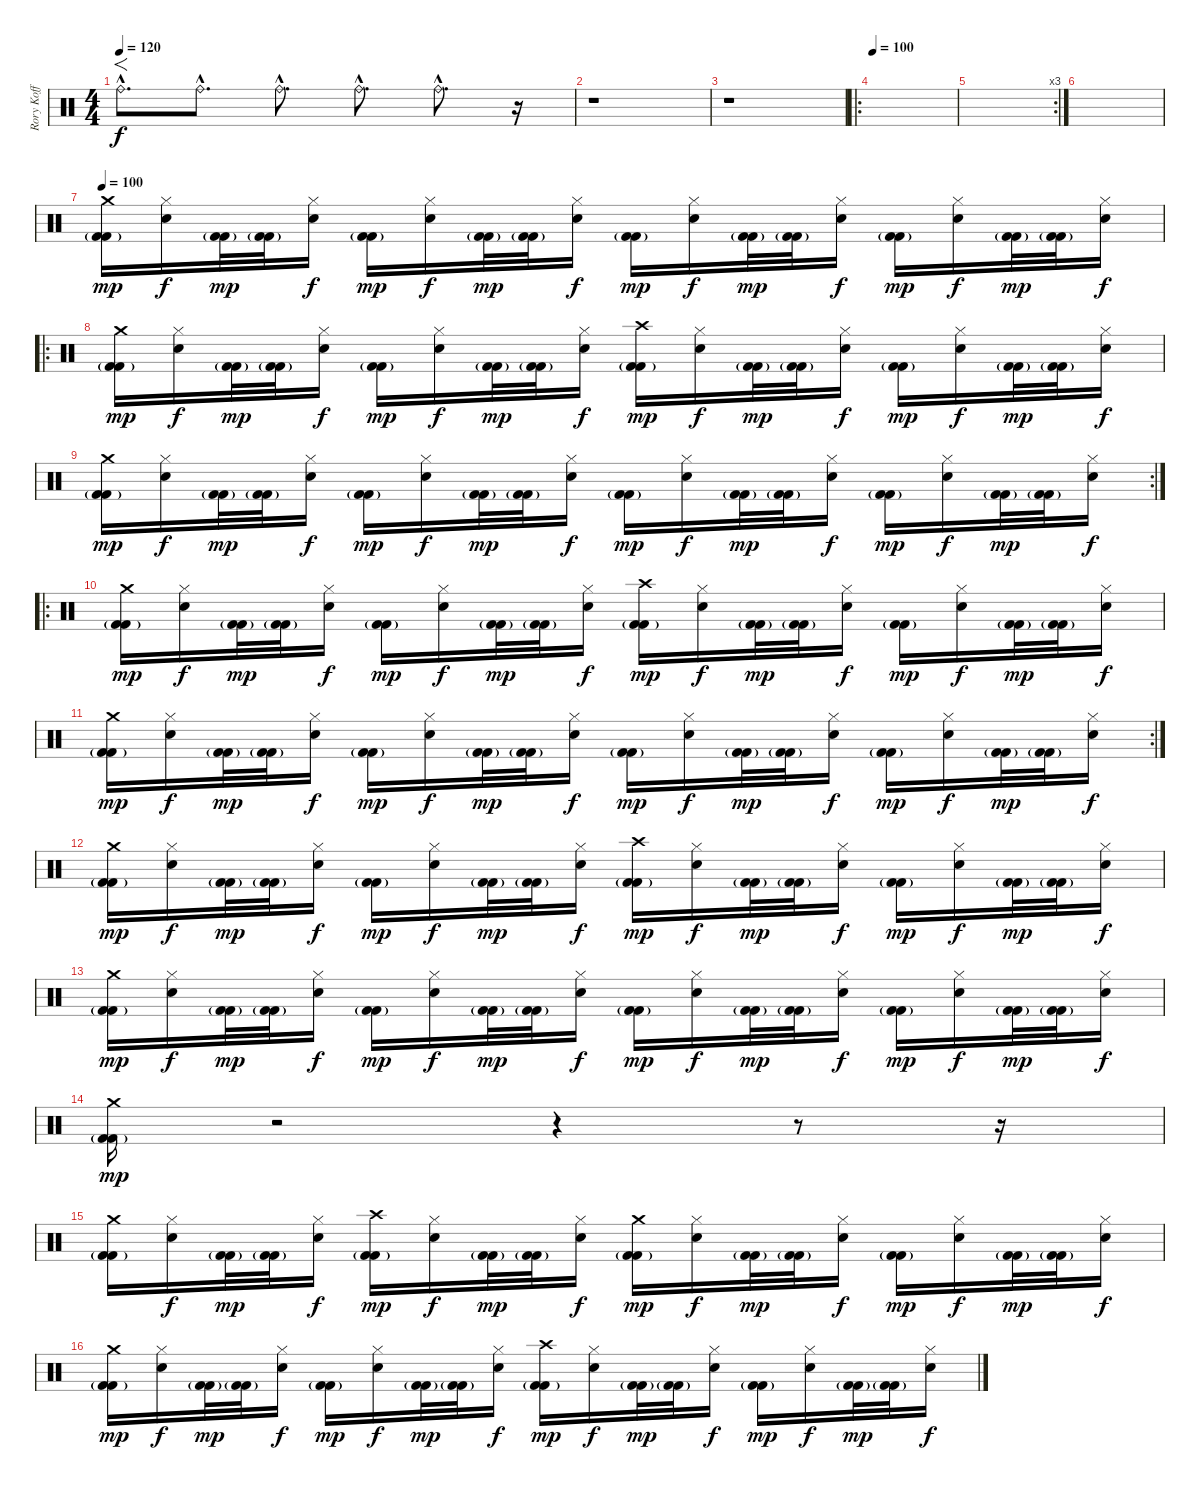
\track ("Rory Koff" "Rory Koff") {instrument percussion}
\staff {score}
\articulation defaults
\ts (4 4)
\tempo 120
\clef neutral
\ks c "Ride (bell)"{hac}.8{f d dy f} "Ride (bell)"{hac}.8{d} "Ride (bell)"{hac}.8{d} "Ride (bell)"{hac}.8{d} "Ride (bell)"{hac}.8{d}
r.16 |
r.1 |
r.1 |
\ro
\tempo 100
|
\rc 3
|
|
\tempo 100
("Crash medium (hit)" "Kick (hit) 2"{g} "Kick (hit) 2").16{dy mp} ("Hi-Hat (closed)" "Snare (hit) 2").16{dy f} ("Kick (hit) 2"{g} "Kick (hit) 2").32{dy mp} ("Kick (hit) 2"{g} "Kick (hit) 2").32 ("Hi-Hat (closed)" "Snare (hit) 2").16{dy f} ("Kick (hit) 2"{g} "Kick (hit) 2").16{dy mp} ("Hi-Hat (closed)" "Snare (hit) 2").16{dy f} ("Kick (hit) 2"{g} "Kick (hit) 2").32{dy mp} ("Kick (hit) 2"{g} "Kick (hit) 2").32 ("Hi-Hat (closed)" "Snare (hit) 2").16{dy f} ("Kick (hit) 2"{g} "Kick (hit) 2").16{dy mp} ("Hi-Hat (closed)" "Snare (hit) 2").16{dy f} ("Kick (hit) 2"{g} "Kick (hit) 2").32{dy mp} ("Kick (hit) 2"{g} "Kick (hit) 2").32 ("Hi-Hat (closed)" "Snare (hit) 2").16{dy f} ("Kick (hit) 2"{g} "Kick (hit) 2").16{dy mp} ("Hi-Hat (closed)" "Snare (hit) 2").16{dy f} ("Kick (hit) 2"{g} "Kick (hit) 2").32{dy mp} ("Kick (hit) 2"{g} "Kick (hit) 2").32 ("Hi-Hat (closed)" "Snare (hit) 2").16{dy f} |
\ro
("Crash medium (hit)" "Kick (hit) 2"{g} "Kick (hit) 2").16{dy mp} ("Hi-Hat (closed)" "Snare (hit) 2").16{dy f} ("Kick (hit) 2"{g} "Kick (hit) 2").32{dy mp} ("Kick (hit) 2"{g} "Kick (hit) 2").32 ("Hi-Hat (closed)" "Snare (hit) 2").16{dy f} ("Kick (hit) 2"{g} "Kick (hit) 2").16{dy mp} ("Hi-Hat (closed)" "Snare (hit) 2").16{dy f} ("Kick (hit) 2"{g} "Kick (hit) 2").32{dy mp} ("Kick (hit) 2"{g} "Kick (hit) 2").32 ("Hi-Hat (closed)" "Snare (hit) 2").16{dy f} ("Crash high (hit)" "Kick (hit) 2"{g} "Kick (hit) 2").16{dy mp} ("Hi-Hat (closed)" "Snare (hit) 2").16{dy f} ("Kick (hit) 2"{g} "Kick (hit) 2").32{dy mp} ("Kick (hit) 2"{g} "Kick (hit) 2").32 ("Hi-Hat (closed)" "Snare (hit) 2").16{dy f} ("Kick (hit) 2"{g} "Kick (hit) 2").16{dy mp} ("Hi-Hat (closed)" "Snare (hit) 2").16{dy f} ("Kick (hit) 2"{g} "Kick (hit) 2").32{dy mp} ("Kick (hit) 2"{g} "Kick (hit) 2").32 ("Hi-Hat (closed)" "Snare (hit) 2").16{dy f} |
\rc 2
("Crash medium (hit)" "Kick (hit) 2"{g} "Kick (hit) 2").16{dy mp} ("Hi-Hat (closed)" "Snare (hit) 2").16{dy f} ("Kick (hit) 2"{g} "Kick (hit) 2").32{dy mp} ("Kick (hit) 2"{g} "Kick (hit) 2").32 ("Hi-Hat (closed)" "Snare (hit) 2").16{dy f} ("Kick (hit) 2"{g} "Kick (hit) 2").16{dy mp} ("Hi-Hat (closed)" "Snare (hit) 2").16{dy f} ("Kick (hit) 2"{g} "Kick (hit) 2").32{dy mp} ("Kick (hit) 2"{g} "Kick (hit) 2").32 ("Hi-Hat (closed)" "Snare (hit) 2").16{dy f} ("Kick (hit) 2"{g} "Kick (hit) 2").16{dy mp} ("Hi-Hat (closed)" "Snare (hit) 2").16{dy f} ("Kick (hit) 2"{g} "Kick (hit) 2").32{dy mp} ("Kick (hit) 2"{g} "Kick (hit) 2").32 ("Hi-Hat (closed)" "Snare (hit) 2").16{dy f} ("Kick (hit) 2"{g} "Kick (hit) 2").16{dy mp} ("Hi-Hat (closed)" "Snare (hit) 2").16{dy f} ("Kick (hit) 2"{g} "Kick (hit) 2").32{dy mp} ("Kick (hit) 2"{g} "Kick (hit) 2").32 ("Hi-Hat (closed)" "Snare (hit) 2").16{dy f} |
\ro
("Crash medium (hit)" "Kick (hit) 2"{g} "Kick (hit) 2").16{dy mp} ("Hi-Hat (closed)" "Snare (hit) 2").16{dy f} ("Kick (hit) 2"{g} "Kick (hit) 2").32{dy mp} ("Kick (hit) 2"{g} "Kick (hit) 2").32 ("Hi-Hat (closed)" "Snare (hit) 2").16{dy f} ("Kick (hit) 2"{g} "Kick (hit) 2").16{dy mp} ("Hi-Hat (closed)" "Snare (hit) 2").16{dy f} ("Kick (hit) 2"{g} "Kick (hit) 2").32{dy mp} ("Kick (hit) 2"{g} "Kick (hit) 2").32 ("Hi-Hat (closed)" "Snare (hit) 2").16{dy f} ("Crash high (hit)" "Kick (hit) 2"{g} "Kick (hit) 2").16{dy mp} ("Hi-Hat (closed)" "Snare (hit) 2").16{dy f} ("Kick (hit) 2"{g} "Kick (hit) 2").32{dy mp} ("Kick (hit) 2"{g} "Kick (hit) 2").32 ("Hi-Hat (closed)" "Snare (hit) 2").16{dy f} ("Kick (hit) 2"{g} "Kick (hit) 2").16{dy mp} ("Hi-Hat (closed)" "Snare (hit) 2").16{dy f} ("Kick (hit) 2"{g} "Kick (hit) 2").32{dy mp} ("Kick (hit) 2"{g} "Kick (hit) 2").32 ("Hi-Hat (closed)" "Snare (hit) 2").16{dy f} |
\rc 2
("Crash medium (hit)" "Kick (hit) 2"{g} "Kick (hit) 2").16{dy mp} ("Hi-Hat (closed)" "Snare (hit) 2").16{dy f} ("Kick (hit) 2"{g} "Kick (hit) 2").32{dy mp} ("Kick (hit) 2"{g} "Kick (hit) 2").32 ("Hi-Hat (closed)" "Snare (hit) 2").16{dy f} ("Kick (hit) 2"{g} "Kick (hit) 2").16{dy mp} ("Hi-Hat (closed)" "Snare (hit) 2").16{dy f} ("Kick (hit) 2"{g} "Kick (hit) 2").32{dy mp} ("Kick (hit) 2"{g} "Kick (hit) 2").32 ("Hi-Hat (closed)" "Snare (hit) 2").16{dy f} ("Kick (hit) 2"{g} "Kick (hit) 2").16{dy mp} ("Hi-Hat (closed)" "Snare (hit) 2").16{dy f} ("Kick (hit) 2"{g} "Kick (hit) 2").32{dy mp} ("Kick (hit) 2"{g} "Kick (hit) 2").32 ("Hi-Hat (closed)" "Snare (hit) 2").16{dy f} ("Kick (hit) 2"{g} "Kick (hit) 2").16{dy mp} ("Hi-Hat (closed)" "Snare (hit) 2").16{dy f} ("Kick (hit) 2"{g} "Kick (hit) 2").32{dy mp} ("Kick (hit) 2"{g} "Kick (hit) 2").32 ("Hi-Hat (closed)" "Snare (hit) 2").16{dy f} |
("Crash medium (hit)" "Kick (hit) 2"{g} "Kick (hit) 2").16{dy mp} ("Hi-Hat (closed)" "Snare (hit) 2").16{dy f} ("Kick (hit) 2"{g} "Kick (hit) 2").32{dy mp} ("Kick (hit) 2"{g} "Kick (hit) 2").32 ("Hi-Hat (closed)" "Snare (hit) 2").16{dy f} ("Kick (hit) 2"{g} "Kick (hit) 2").16{dy mp} ("Hi-Hat (closed)" "Snare (hit) 2").16{dy f} ("Kick (hit) 2"{g} "Kick (hit) 2").32{dy mp} ("Kick (hit) 2"{g} "Kick (hit) 2").32 ("Hi-Hat (closed)" "Snare (hit) 2").16{dy f} ("Crash high (hit)" "Kick (hit) 2"{g} "Kick (hit) 2").16{dy mp} ("Hi-Hat (closed)" "Snare (hit) 2").16{dy f} ("Kick (hit) 2"{g} "Kick (hit) 2").32{dy mp} ("Kick (hit) 2"{g} "Kick (hit) 2").32 ("Hi-Hat (closed)" "Snare (hit) 2").16{dy f} ("Kick (hit) 2"{g} "Kick (hit) 2").16{dy mp} ("Hi-Hat (closed)" "Snare (hit) 2").16{dy f} ("Kick (hit) 2"{g} "Kick (hit) 2").32{dy mp} ("Kick (hit) 2"{g} "Kick (hit) 2").32 ("Hi-Hat (closed)" "Snare (hit) 2").16{dy f} |
("Crash medium (hit)" "Kick (hit) 2"{g} "Kick (hit) 2").16{dy mp} ("Hi-Hat (closed)" "Snare (hit) 2").16{dy f} ("Kick (hit) 2"{g} "Kick (hit) 2").32{dy mp} ("Kick (hit) 2"{g} "Kick (hit) 2").32 ("Hi-Hat (closed)" "Snare (hit) 2").16{dy f} ("Kick (hit) 2"{g} "Kick (hit) 2").16{dy mp} ("Hi-Hat (closed)" "Snare (hit) 2").16{dy f} ("Kick (hit) 2"{g} "Kick (hit) 2").32{dy mp} ("Kick (hit) 2"{g} "Kick (hit) 2").32 ("Hi-Hat (closed)" "Snare (hit) 2").16{dy f} ("Kick (hit) 2"{g} "Kick (hit) 2").16{dy mp} ("Hi-Hat (closed)" "Snare (hit) 2").16{dy f} ("Kick (hit) 2"{g} "Kick (hit) 2").32{dy mp} ("Kick (hit) 2"{g} "Kick (hit) 2").32 ("Hi-Hat (closed)" "Snare (hit) 2").16{dy f} ("Kick (hit) 2"{g} "Kick (hit) 2").16{dy mp} ("Hi-Hat (closed)" "Snare (hit) 2").16{dy f} ("Kick (hit) 2"{g} "Kick (hit) 2").32{dy mp} ("Kick (hit) 2"{g} "Kick (hit) 2").32 ("Hi-Hat (closed)" "Snare (hit) 2").16{dy f} |
("Crash medium (hit)" "Kick (hit) 2"{g} "Kick (hit) 2").16{dy mp} r.2 r.4 r.8 r.16 |
("Crash medium (hit)" "Kick (hit) 2"{g} "Kick (hit) 2").16 ("Hi-Hat (closed)" "Snare (hit) 2").16{dy f} ("Kick (hit) 2"{g} "Kick (hit) 2").32{dy mp} ("Kick (hit) 2"{g} "Kick (hit) 2").32 ("Hi-Hat (closed)" "Snare (hit) 2").16{dy f} ("Crash high (hit)" "Kick (hit) 2"{g} "Kick (hit) 2").16{dy mp} ("Hi-Hat (closed)" "Snare (hit) 2").16{dy f} ("Kick (hit) 2"{g} "Kick (hit) 2").32{dy mp} ("Kick (hit) 2"{g} "Kick (hit) 2").32 ("Hi-Hat (closed)" "Snare (hit) 2").16{dy f} ("Crash medium (hit)" "Kick (hit) 2"{g} "Kick (hit) 2").16{dy mp} ("Hi-Hat (closed)" "Snare (hit) 2").16{dy f} ("Kick (hit) 2"{g} "Kick (hit) 2").32{dy mp} ("Kick (hit) 2"{g} "Kick (hit) 2").32 ("Hi-Hat (closed)" "Snare (hit) 2").16{dy f} ("Kick (hit) 2"{g} "Kick (hit) 2").16{dy mp} ("Hi-Hat (closed)" "Snare (hit) 2").16{dy f} ("Kick (hit) 2"{g} "Kick (hit) 2").32{dy mp} ("Kick (hit) 2"{g} "Kick (hit) 2").32 ("Hi-Hat (closed)" "Snare (hit) 2").16{dy f} |
("Crash medium (hit)" "Kick (hit) 2"{g} "Kick (hit) 2").16{dy mp} ("Hi-Hat (closed)" "Snare (hit) 2").16{dy f} ("Kick (hit) 2"{g} "Kick (hit) 2").32{dy mp} ("Kick (hit) 2"{g} "Kick (hit) 2").32 ("Hi-Hat (closed)" "Snare (hit) 2").16{dy f} ("Kick (hit) 2"{g} "Kick (hit) 2").16{dy mp} ("Hi-Hat (closed)" "Snare (hit) 2").16{dy f} ("Kick (hit) 2"{g} "Kick (hit) 2").32{dy mp} ("Kick (hit) 2"{g} "Kick (hit) 2").32 ("Hi-Hat (closed)" "Snare (hit) 2").16{dy f} ("Crash high (hit)" "Kick (hit) 2"{g} "Kick (hit) 2").16{dy mp} ("Hi-Hat (closed)" "Snare (hit) 2").16{dy f} ("Kick (hit) 2"{g} "Kick (hit) 2").32{dy mp} ("Kick (hit) 2"{g} "Kick (hit) 2").32 ("Hi-Hat (closed)" "Snare (hit) 2").16{dy f} ("Kick (hit) 2"{g} "Kick (hit) 2").16{dy mp} ("Hi-Hat (closed)" "Snare (hit) 2").16{dy f} ("Kick (hit) 2"{g} "Kick (hit) 2").32{dy mp} ("Kick (hit) 2"{g} "Kick (hit) 2").32 ("Hi-Hat (closed)" "Snare (hit) 2").16{dy f}
